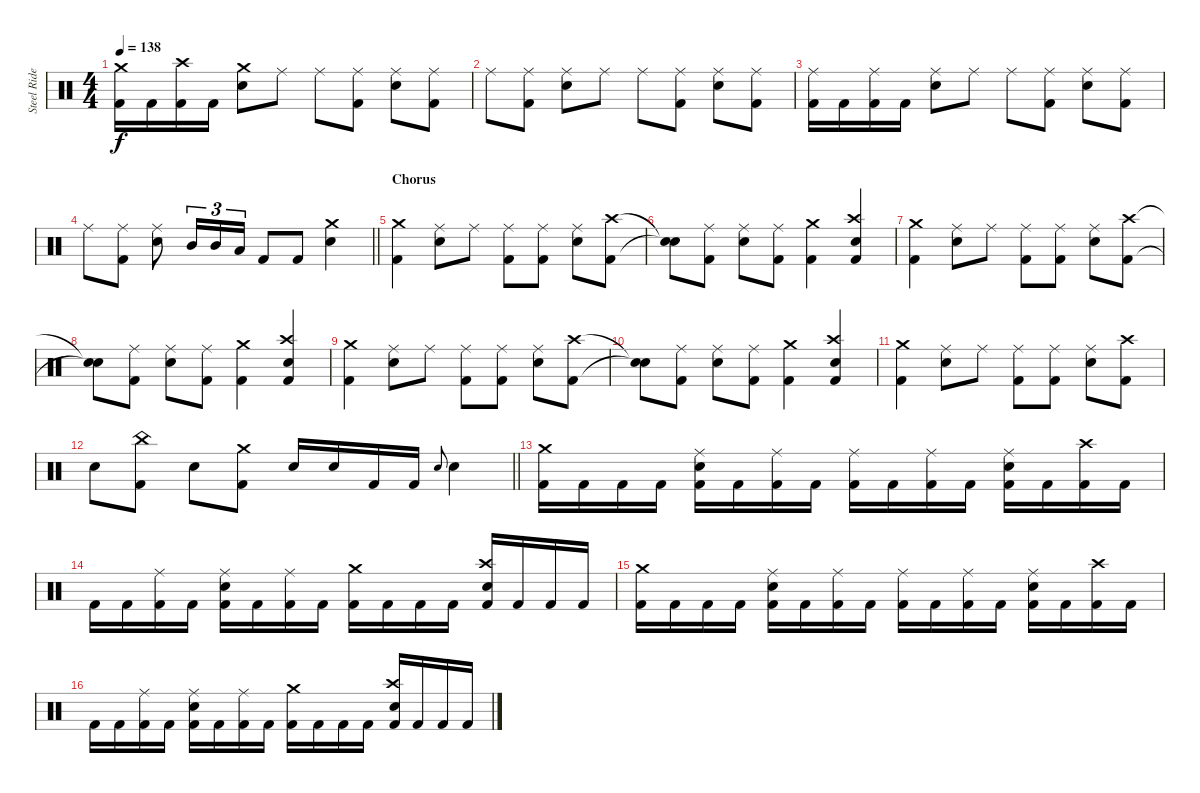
\track ("Steel Rider" "Steel Ride") {instrument percussion}
\staff {score}
\articulation defaults
\ts (4 4)
\tempo 138
\clef neutral
\ks c
("Crash medium (hit)" "Kick (hit) 2").16{dy f} "Kick (hit) 2".16 ("Crash high (hit)" "Kick (hit) 2").16 "Kick (hit) 2".16 ("Crash medium (hit)" "Electric Snare (hit)").8 "Ride (middle)".8 "Ride (middle)".8 ("Ride (middle)" "Kick (hit) 2").8 ("Ride (middle)" "Electric Snare (hit)").8 ("Ride (middle)" "Kick (hit) 2").8 |
"Ride (middle)".8 ("Ride (middle)" "Kick (hit) 2").8 ("Ride (middle)" "Electric Snare (hit)").8 "Ride (middle)".8 "Ride (middle)".8 ("Ride (middle)" "Kick (hit) 2").8 ("Ride (middle)" "Electric Snare (hit)").8 ("Ride (middle)" "Kick (hit) 2").8 |
("Ride (middle)" "Kick (hit) 2").16 "Kick (hit) 2".16 ("Ride (middle)" "Kick (hit) 2").16 "Kick (hit) 2".16 ("Ride (middle)" "Electric Snare (hit)").8 "Ride (middle)".8 "Ride (middle)".8 ("Ride (middle)" "Kick (hit) 2").8 ("Ride (middle)" "Electric Snare (hit)").8 ("Ride (middle)" "Kick (hit) 2").8 |
\barLineRight lightlight "Ride (middle)".8
("Ride (middle)" "Kick (hit) 2").8 ("Ride (middle)" "Electric Snare (hit)").8 "Mid Tom (hit)".16{tu (3 2)} "Mid Tom (hit)".16{tu (3 2)} "Low Tom (hit)".16{tu (3 2)} "Kick (hit) 2".8 "Kick (hit) 2".8 ("Crash medium (hit)" "Electric Snare (hit)").4 |
\section ("" "Chorus")
("Crash medium (hit)" "Kick (hit) 2").4 ("Ride (middle)" "Electric Snare (hit)").8 "Ride (middle)".8 ("Ride (middle)" "Kick (hit) 2").8 ("Ride (middle)" "Kick (hit) 2").8 ("Ride (middle)" "Electric Snare (hit)").8 ("Crash high (hit)" "Kick (hit) 2").8 |
("Snare (hit)"{t} "Snare (hit)"{t}).8 ("Ride (middle)" "Kick (hit) 2").8 ("Ride (middle)" "Electric Snare (hit)").8 ("Ride (middle)" "Kick (hit) 2").8 ("Crash medium (hit)" "Kick (hit) 2").4 ("Crash high (hit)" "Electric Snare (hit)" "Kick (hit) 2").4 |
("Crash medium (hit)" "Kick (hit) 2").4 ("Ride (middle)" "Electric Snare (hit)").8 "Ride (middle)".8 ("Ride (middle)" "Kick (hit) 2").8 ("Ride (middle)" "Kick (hit) 2").8 ("Ride (middle)" "Electric Snare (hit)").8 ("Crash high (hit)" "Kick (hit) 2").8 |
("Snare (hit)"{t} "Snare (hit)"{t}).8 ("Ride (middle)" "Kick (hit) 2").8 ("Ride (middle)" "Electric Snare (hit)").8 ("Ride (middle)" "Kick (hit) 2").8 ("Crash medium (hit)" "Kick (hit) 2").4 ("Crash high (hit)" "Electric Snare (hit)" "Kick (hit) 2").4 |
("Crash medium (hit)" "Kick (hit) 2").4 ("Ride (middle)" "Electric Snare (hit)").8 "Ride (middle)".8 ("Ride (middle)" "Kick (hit) 2").8 ("Ride (middle)" "Kick (hit) 2").8 ("Ride (middle)" "Electric Snare (hit)").8 ("Crash high (hit)" "Kick (hit) 2").8 |
("Snare (hit)"{t} "Snare (hit)"{t}).8 ("Ride (middle)" "Kick (hit) 2").8 ("Ride (middle)" "Electric Snare (hit)").8 ("Ride (middle)" "Kick (hit) 2").8 ("Crash medium (hit)" "Kick (hit) 2").4 ("Crash high (hit)" "Electric Snare (hit)" "Kick (hit) 2").4 |
("Crash medium (hit)" "Kick (hit) 2").4 ("Ride (middle)" "Electric Snare (hit)").8 "Ride (middle)".8 ("Ride (middle)" "Kick (hit) 2").8 ("Ride (middle)" "Kick (hit) 2").8 ("Ride (middle)" "Electric Snare (hit)").8 ("Crash high (hit)" "Kick (hit) 2").8 |
\barLineRight lightlight "Electric Snare (hit)".8
("China (hit)" "Kick (hit) 2").8 "Electric Snare (hit)".8 ("Crash medium (hit)" "Kick (hit) 2").8 "Electric Snare (hit)".16 "Electric Snare (hit)".16 "Kick (hit) 2".16 "Kick (hit) 2".16 "Electric Snare (hit)".8{gr onbeat} "Electric Snare (hit)".4 |
("Crash medium (hit)" "Kick (hit) 2").16 "Kick (hit) 2".16 "Kick (hit) 2".16 "Kick (hit) 2".16 ("Ride (middle)" "Electric Snare (hit)" "Kick (hit) 2").16 "Kick (hit) 2".16 ("Ride (middle)" "Kick (hit) 2").16 "Kick (hit) 2".16 ("Ride (middle)" "Kick (hit) 2").16 "Kick (hit) 2".16 ("Ride (middle)" "Kick (hit) 2").16 "Kick (hit) 2".16 ("Ride (middle)" "Electric Snare (hit)" "Kick (hit) 2").16 "Kick (hit) 2".16 ("Crash high (hit)" "Kick (hit) 2").16 "Kick (hit) 2".16 |
"Kick (hit) 2".16 "Kick (hit) 2".16 ("Ride (middle)" "Kick (hit) 2").16 "Kick (hit) 2".16 ("Ride (middle)" "Electric Snare (hit)" "Kick (hit) 2").16 "Kick (hit) 2".16 ("Ride (middle)" "Kick (hit) 2").16 "Kick (hit) 2".16 ("Crash medium (hit)" "Kick (hit) 2").16 "Kick (hit) 2".16 "Kick (hit) 2".16 "Kick (hit) 2".16 ("Crash high (hit)" "Electric Snare (hit)" "Kick (hit) 2").16 "Kick (hit) 2".16 "Kick (hit) 2".16 "Kick (hit) 2".16 |
("Crash medium (hit)" "Kick (hit) 2").16 "Kick (hit) 2".16 "Kick (hit) 2".16 "Kick (hit) 2".16 ("Ride (middle)" "Electric Snare (hit)" "Kick (hit) 2").16 "Kick (hit) 2".16 ("Ride (middle)" "Kick (hit) 2").16 "Kick (hit) 2".16 ("Ride (middle)" "Kick (hit) 2").16 "Kick (hit) 2".16 ("Ride (middle)" "Kick (hit) 2").16 "Kick (hit) 2".16 ("Ride (middle)" "Electric Snare (hit)" "Kick (hit) 2").16 "Kick (hit) 2".16 ("Crash high (hit)" "Kick (hit) 2").16 "Kick (hit) 2".16 |
"Kick (hit) 2".16 "Kick (hit) 2".16 ("Ride (middle)" "Kick (hit) 2").16 "Kick (hit) 2".16 ("Ride (middle)" "Electric Snare (hit)" "Kick (hit) 2").16 "Kick (hit) 2".16 ("Ride (middle)" "Kick (hit) 2").16 "Kick (hit) 2".16 ("Crash medium (hit)" "Kick (hit) 2").16 "Kick (hit) 2".16 "Kick (hit) 2".16 "Kick (hit) 2".16 ("Crash high (hit)" "Electric Snare (hit)" "Kick (hit) 2").16 "Kick (hit) 2".16 "Kick (hit) 2".16 "Kick (hit) 2".16
